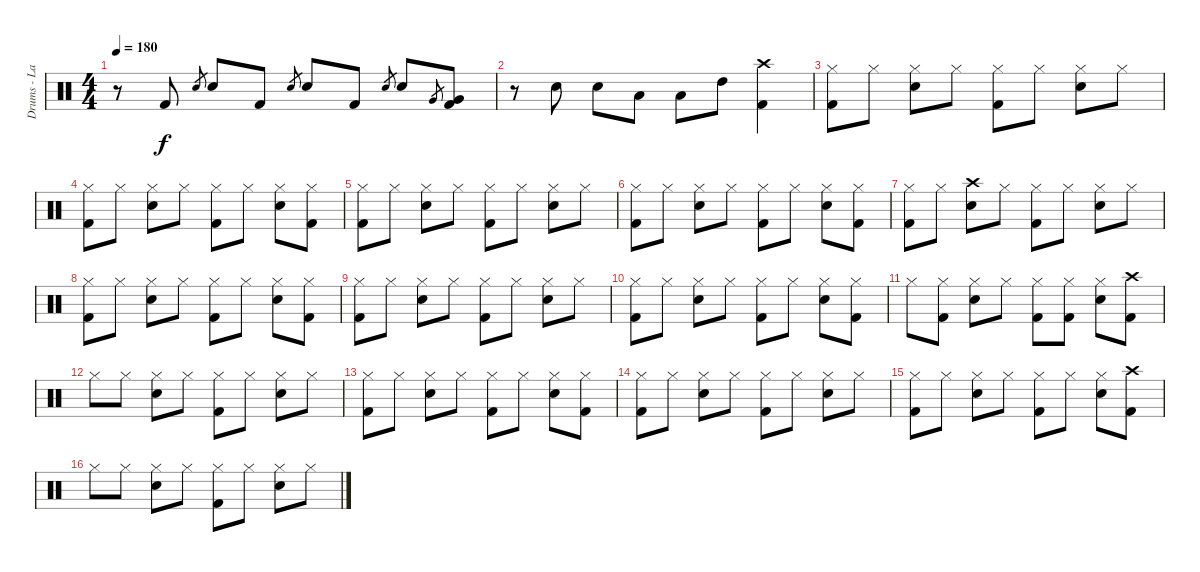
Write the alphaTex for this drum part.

\track ("Drums - Lars" "Drums - La") {instrument percussion}
\staff {score}
\articulation defaults
\ts (4 4)
\tempo 180
\clef neutral
\ks c
r.8{dy f} "Kick (hit) 2".8 "Snare (hit) 2".8{gr} "Snare (hit) 2".8 "Kick (hit) 2".8 "Snare (hit) 2".8{gr} "Snare (hit) 2".8 "Kick (hit) 2".8 "Snare (hit) 2".8{gr} "Snare (hit) 2".8 "Very Low Tom (hit)".8{gr} ("Very Low Tom (hit)" "Kick (hit) 2").8 |
r.8 "Snare (hit) 2".8 "Snare (hit) 2".8 "Low Tom (hit)".8 "Low Tom (hit)".8 "High Tom (hit)".8 ("Crash high (hit)" "Kick (hit) 2").4 |
("Hi-Hat (closed)" "Kick (hit) 2").8 "Hi-Hat (closed)".8 ("Hi-Hat (closed)" "Snare (hit) 2").8 "Hi-Hat (closed)".8 ("Hi-Hat (closed)" "Kick (hit) 2").8 "Hi-Hat (closed)".8 ("Hi-Hat (closed)" "Snare (hit) 2").8 "Hi-Hat (closed)".8 |
("Hi-Hat (closed)" "Kick (hit) 2").8 "Hi-Hat (closed)".8 ("Hi-Hat (closed)" "Snare (hit) 2").8 "Hi-Hat (closed)".8 ("Hi-Hat (closed)" "Kick (hit) 2").8 "Hi-Hat (closed)".8 ("Hi-Hat (closed)" "Snare (hit) 2").8 ("Hi-Hat (closed)" "Kick (hit) 2").8 |
("Hi-Hat (closed)" "Kick (hit) 2").8 "Hi-Hat (closed)".8 ("Hi-Hat (closed)" "Snare (hit) 2").8 "Hi-Hat (closed)".8 ("Hi-Hat (closed)" "Kick (hit) 2").8 "Hi-Hat (closed)".8 ("Hi-Hat (closed)" "Snare (hit) 2").8 "Hi-Hat (closed)".8 |
("Hi-Hat (closed)" "Kick (hit) 2").8 "Hi-Hat (closed)".8 ("Hi-Hat (closed)" "Snare (hit) 2").8 "Hi-Hat (closed)".8 ("Hi-Hat (closed)" "Kick (hit) 2").8 "Hi-Hat (closed)".8 ("Hi-Hat (closed)" "Snare (hit) 2").8 ("Hi-Hat (closed)" "Kick (hit) 2").8 |
("Hi-Hat (closed)" "Kick (hit) 2").8 "Hi-Hat (closed)".8 ("Crash high (hit)" "Snare (hit) 2").8 "Hi-Hat (closed)".8 ("Hi-Hat (closed)" "Kick (hit) 2").8 "Hi-Hat (closed)".8 ("Hi-Hat (closed)" "Snare (hit) 2").8 "Hi-Hat (closed)".8 |
("Hi-Hat (closed)" "Kick (hit) 2").8 "Hi-Hat (closed)".8 ("Hi-Hat (closed)" "Snare (hit) 2").8 "Hi-Hat (closed)".8 ("Hi-Hat (closed)" "Kick (hit) 2").8 "Hi-Hat (closed)".8 ("Hi-Hat (closed)" "Snare (hit) 2").8 ("Hi-Hat (closed)" "Kick (hit) 2").8 |
("Hi-Hat (closed)" "Kick (hit) 2").8 "Hi-Hat (closed)".8 ("Hi-Hat (closed)" "Snare (hit) 2").8 "Hi-Hat (closed)".8 ("Hi-Hat (closed)" "Kick (hit) 2").8 "Hi-Hat (closed)".8 ("Hi-Hat (closed)" "Snare (hit) 2").8 "Hi-Hat (closed)".8 |
("Hi-Hat (closed)" "Kick (hit) 2").8 "Hi-Hat (closed)".8 ("Hi-Hat (closed)" "Snare (hit) 2").8 "Hi-Hat (closed)".8 ("Hi-Hat (closed)" "Kick (hit) 2").8 "Hi-Hat (closed)".8 ("Hi-Hat (closed)" "Snare (hit) 2").8 ("Hi-Hat (closed)" "Kick (hit) 2").8 |
"Hi-Hat (closed)".8 ("Hi-Hat (closed)" "Kick (hit) 2").8 ("Hi-Hat (closed)" "Snare (hit) 2").8 "Hi-Hat (closed)".8 ("Hi-Hat (closed)" "Kick (hit) 2").8 ("Hi-Hat (closed)" "Kick (hit) 2").8 ("Hi-Hat (closed)" "Snare (hit) 2").8 ("Crash high (hit)" "Kick (hit) 2").8 |
"Hi-Hat (closed)".8 "Hi-Hat (closed)".8 ("Hi-Hat (closed)" "Snare (hit) 2").8 "Hi-Hat (closed)".8 ("Hi-Hat (closed)" "Kick (hit) 2").8 "Hi-Hat (closed)".8 ("Hi-Hat (closed)" "Snare (hit) 2").8 "Hi-Hat (closed)".8 |
("Hi-Hat (closed)" "Kick (hit) 2").8 "Hi-Hat (closed)".8 ("Hi-Hat (closed)" "Snare (hit) 2").8 "Hi-Hat (closed)".8 ("Hi-Hat (closed)" "Kick (hit) 2").8 "Hi-Hat (closed)".8 ("Hi-Hat (closed)" "Snare (hit) 2").8 ("Hi-Hat (closed)" "Kick (hit) 2").8 |
("Hi-Hat (closed)" "Kick (hit) 2").8 "Hi-Hat (closed)".8 ("Hi-Hat (closed)" "Snare (hit) 2").8 "Hi-Hat (closed)".8 ("Hi-Hat (closed)" "Kick (hit) 2").8 "Hi-Hat (closed)".8 ("Hi-Hat (closed)" "Snare (hit) 2").8 "Hi-Hat (closed)".8 |
("Hi-Hat (closed)" "Kick (hit) 2").8 "Hi-Hat (closed)".8 ("Hi-Hat (closed)" "Snare (hit) 2").8 "Hi-Hat (closed)".8 ("Hi-Hat (closed)" "Kick (hit) 2").8 "Hi-Hat (closed)".8 ("Hi-Hat (closed)" "Snare (hit) 2").8 ("Crash high (hit)" "Kick (hit) 2").8 |
"Hi-Hat (closed)".8 "Hi-Hat (closed)".8 ("Hi-Hat (closed)" "Snare (hit) 2").8 "Hi-Hat (closed)".8 ("Hi-Hat (closed)" "Kick (hit) 2").8 "Hi-Hat (closed)".8 ("Hi-Hat (closed)" "Snare (hit) 2").8 "Hi-Hat (closed)".8
